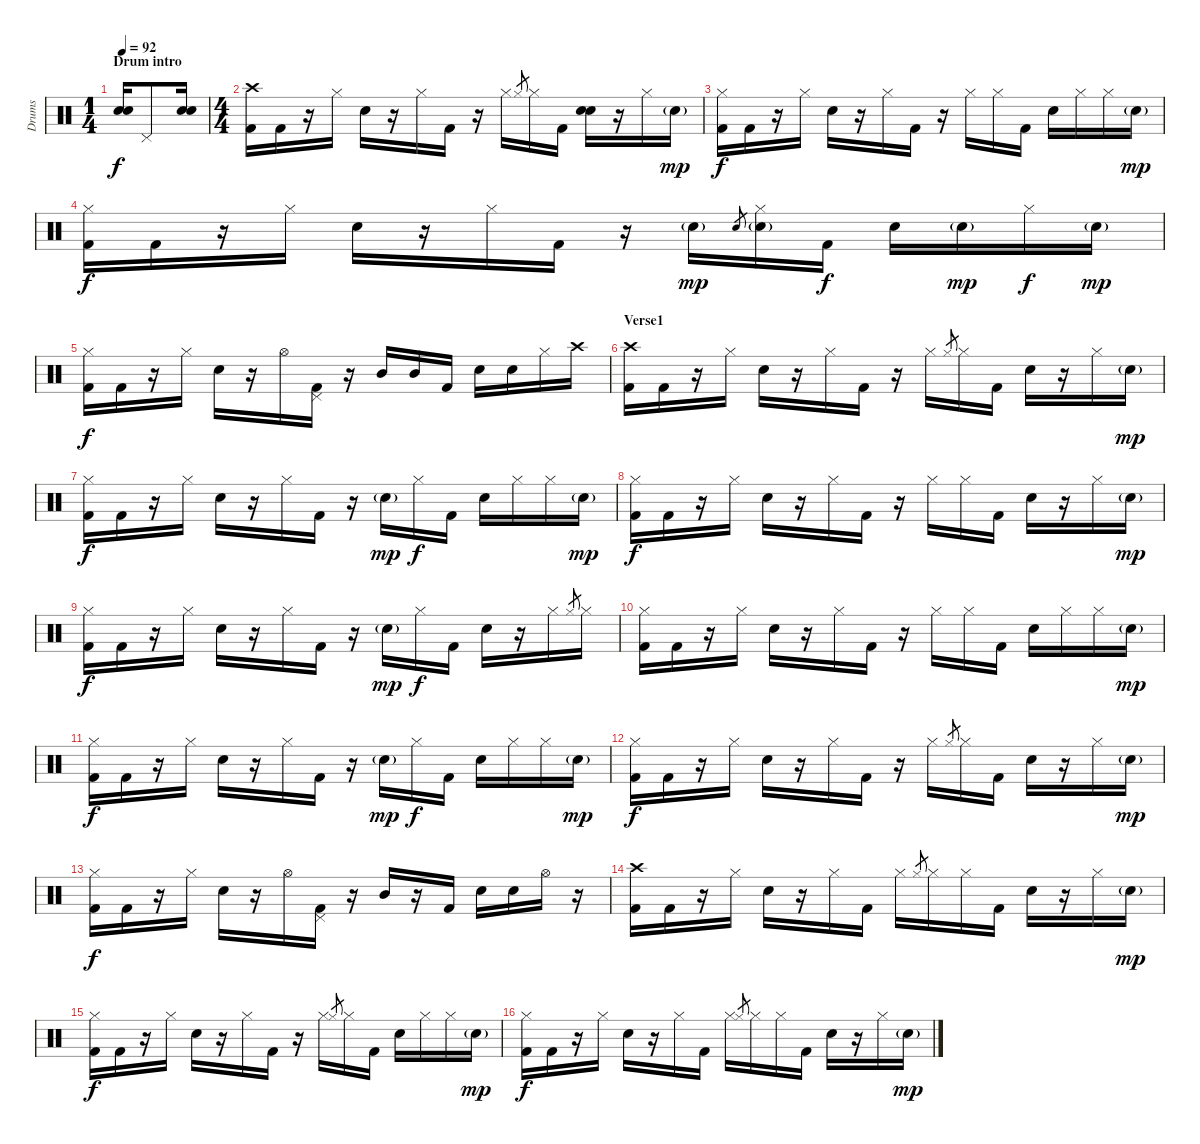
\track ("Drums" "Drums") {instrument percussion}
\staff {score}
\articulation defaults
\ts (1 4)
\section ("" "Drum intro")
\tempo 92
\clef neutral
\ks c
("Electric Snare (hit)" "Electric Snare (hit)").16{dy f} "Pedal Hi-Hat (hit)".8 ("Electric Snare (hit)" "Electric Snare (hit)").16 |
\ts (4 4)
("Kick (hit) 2" "Crash high (hit)").16 "Kick (hit) 2".16 r.16 "Hi-Hat (closed)".16 "Electric Snare (hit)".16 r.16 "Hi-Hat (closed)".16 "Kick (hit) 2".16 r.16 "Hi-Hat (closed)".16 "Hi-Hat (closed)".8{gr} "Hi-Hat (closed)".16 "Kick (hit) 2".16 ("Electric Snare (hit)" "Electric Snare (hit)").16 r.16 "Hi-Hat (closed)".16 "Electric Snare (hit)"{g}.16{dy mp} |
("Kick (hit) 2" "Hi-Hat (closed)").16{dy f} "Kick (hit) 2".16 r.16 "Hi-Hat (closed)".16 "Electric Snare (hit)".16 r.16 "Hi-Hat (closed)".16 "Kick (hit) 2".16 r.16 "Hi-Hat (closed)".16 "Hi-Hat (closed)".16 "Kick (hit) 2".16 "Electric Snare (hit)".16 "Hi-Hat (closed)".16 "Hi-Hat (closed)".16 "Electric Snare (hit)"{g}.16{dy mp} |
("Kick (hit) 2" "Hi-Hat (closed)").16{dy f} "Kick (hit) 2".16 r.16 "Hi-Hat (closed)".16 "Electric Snare (hit)".16 r.16 "Hi-Hat (closed)".16 "Kick (hit) 2".16 r.16 "Electric Snare (hit)"{g}.16{dy mp} "Electric Snare (hit)".8{gr} ("Hi-Hat (closed)" "Electric Snare (hit)"{g}).16 "Kick (hit) 2".16{dy f} "Electric Snare (hit)".16 "Electric Snare (hit)"{g}.16{dy mp} "Hi-Hat (closed)".16{dy f} "Electric Snare (hit)"{g}.16{dy mp} |
("Kick (hit) 2" "Hi-Hat (closed)").16{dy f} "Kick (hit) 2".16 r.16 "Hi-Hat (closed)".16 "Electric Snare (hit)".16 r.16 "Hi-Hat (open)".16 ("Kick (hit) 2" "Pedal Hi-Hat (hit)").16 r.16 "Mid Tom (hit)".16 "Mid Tom (hit)".16 "Kick (hit) 2".16 "Electric Snare (hit)".16 "Electric Snare (hit)".16 "Hi-Hat (closed)".16 "Crash high (hit)".16 |
\section ("" "Verse1")
("Kick (hit) 2" "Crash high (hit)").16 "Kick (hit) 2".16 r.16 "Hi-Hat (closed)".16 "Electric Snare (hit)".16 r.16 "Hi-Hat (closed)".16 "Kick (hit) 2".16 r.16 "Hi-Hat (closed)".16 "Hi-Hat (closed)".8{gr} "Hi-Hat (closed)".16 "Kick (hit) 2".16 "Electric Snare (hit)".16 r.16 "Hi-Hat (closed)".16 "Electric Snare (hit)"{g}.16{dy mp} |
("Kick (hit) 2" "Hi-Hat (closed)").16{dy f} "Kick (hit) 2".16 r.16 "Hi-Hat (closed)".16 "Electric Snare (hit)".16 r.16 "Hi-Hat (closed)".16 "Kick (hit) 2".16 r.16 "Electric Snare (hit)"{g}.16{dy mp} "Hi-Hat (closed)".16{dy f} "Kick (hit) 2".16 "Electric Snare (hit)".16 "Hi-Hat (closed)".16 "Hi-Hat (closed)".16 "Electric Snare (hit)"{g}.16{dy mp} |
("Kick (hit) 2" "Hi-Hat (closed)").16{dy f} "Kick (hit) 2".16 r.16 "Hi-Hat (closed)".16 "Electric Snare (hit)".16 r.16 "Hi-Hat (closed)".16 "Kick (hit) 2".16 r.16 "Hi-Hat (closed)".16 "Hi-Hat (closed)".16 "Kick (hit) 2".16 "Electric Snare (hit)".16 r.16 "Hi-Hat (closed)".16 "Electric Snare (hit)"{g}.16{dy mp} |
("Kick (hit) 2" "Hi-Hat (closed)").16{dy f} "Kick (hit) 2".16 r.16 "Hi-Hat (closed)".16 "Electric Snare (hit)".16 r.16 "Hi-Hat (closed)".16 "Kick (hit) 2".16 r.16 "Electric Snare (hit)"{g}.16{dy mp} "Hi-Hat (closed)".16{dy f} "Kick (hit) 2".16 "Electric Snare (hit)".16 r.16 "Hi-Hat (closed)".16 "Hi-Hat (closed)".8{gr} "Hi-Hat (closed)".16 |
("Kick (hit) 2" "Hi-Hat (closed)").16 "Kick (hit) 2".16 r.16 "Hi-Hat (closed)".16 "Electric Snare (hit)".16 r.16 "Hi-Hat (closed)".16 "Kick (hit) 2".16 r.16 "Hi-Hat (closed)".16 "Hi-Hat (closed)".16 "Kick (hit) 2".16 "Electric Snare (hit)".16 "Hi-Hat (closed)".16 "Hi-Hat (closed)".16 "Electric Snare (hit)"{g}.16{dy mp} |
("Kick (hit) 2" "Hi-Hat (closed)").16{dy f} "Kick (hit) 2".16 r.16 "Hi-Hat (closed)".16 "Electric Snare (hit)".16 r.16 "Hi-Hat (closed)".16 "Kick (hit) 2".16 r.16 "Electric Snare (hit)"{g}.16{dy mp} "Hi-Hat (closed)".16{dy f} "Kick (hit) 2".16 "Electric Snare (hit)".16 "Hi-Hat (closed)".16 "Hi-Hat (closed)".16 "Electric Snare (hit)"{g}.16{dy mp} |
("Kick (hit) 2" "Hi-Hat (closed)").16{dy f} "Kick (hit) 2".16 r.16 "Hi-Hat (closed)".16 "Electric Snare (hit)".16 r.16 "Hi-Hat (closed)".16 "Kick (hit) 2".16 r.16 "Hi-Hat (closed)".16 "Hi-Hat (closed)".8{gr} "Hi-Hat (closed)".16 "Kick (hit) 2".16 "Electric Snare (hit)".16 r.16 "Hi-Hat (closed)".16 "Electric Snare (hit)"{g}.16{dy mp} |
("Kick (hit) 2" "Hi-Hat (closed)").16{dy f} "Kick (hit) 2".16 r.16 "Hi-Hat (closed)".16 "Electric Snare (hit)".16 r.16 "Hi-Hat (open)".16 ("Kick (hit) 2" "Pedal Hi-Hat (hit)").16 r.16 "Mid Tom (hit)".16 r.16 "Kick (hit) 2".16 "Electric Snare (hit)".16 "Electric Snare (hit)".16 "Hi-Hat (open)".16 r.16 |
("Kick (hit) 2" "Crash high (hit)").16 "Kick (hit) 2".16 r.16 "Hi-Hat (closed)".16 "Electric Snare (hit)".16 r.16 "Hi-Hat (closed)".16 "Kick (hit) 2".16 "Hi-Hat (closed)".16 "Hi-Hat (closed)".8{gr} "Hi-Hat (closed)".16 "Hi-Hat (closed)".16 "Kick (hit) 2".16 "Electric Snare (hit)".16 r.16 "Hi-Hat (closed)".16 "Electric Snare (hit)"{g}.16{dy mp} |
("Kick (hit) 2" "Hi-Hat (closed)").16{dy f} "Kick (hit) 2".16 r.16 "Hi-Hat (closed)".16 "Electric Snare (hit)".16 r.16 "Hi-Hat (closed)".16 "Kick (hit) 2".16 r.16 "Hi-Hat (closed)".16 "Hi-Hat (closed)".8{gr} "Hi-Hat (closed)".16 "Kick (hit) 2".16 "Electric Snare (hit)".16 "Hi-Hat (closed)".16 "Hi-Hat (closed)".16 "Electric Snare (hit)"{g}.16{dy mp} |
("Kick (hit) 2" "Hi-Hat (closed)").16{dy f} "Kick (hit) 2".16 r.16 "Hi-Hat (closed)".16 "Electric Snare (hit)".16 r.16 "Hi-Hat (closed)".16 "Kick (hit) 2".16 "Hi-Hat (closed)".16 "Hi-Hat (closed)".8{gr} "Hi-Hat (closed)".16 "Hi-Hat (closed)".16 "Kick (hit) 2".16 "Electric Snare (hit)".16 r.16 "Hi-Hat (closed)".16 "Electric Snare (hit)"{g}.16{dy mp}
